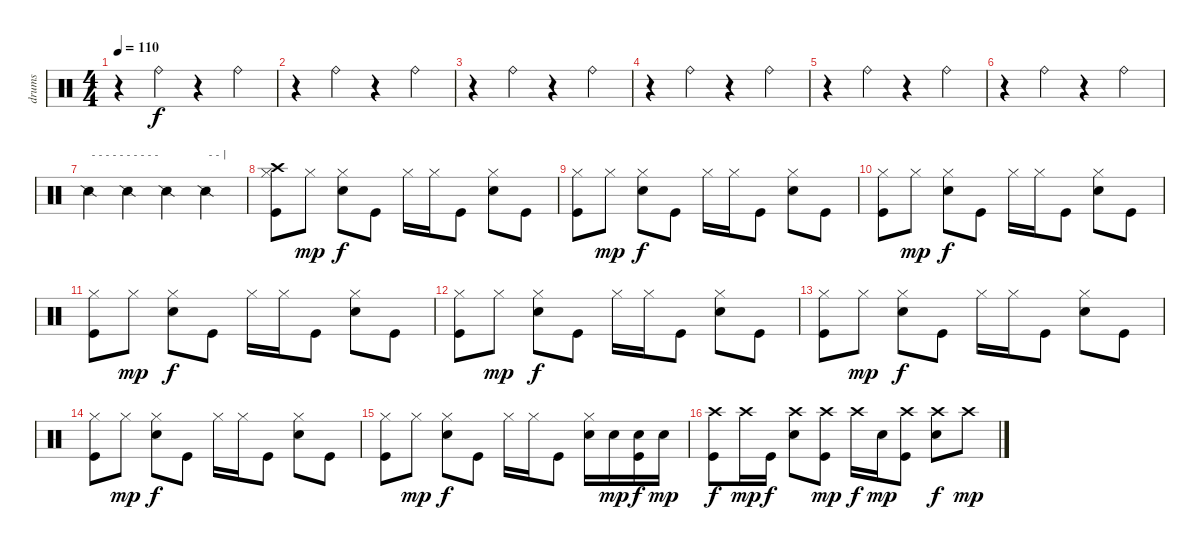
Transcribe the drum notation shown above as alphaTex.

\track ("drums" "drums") {instrument percussion}
\staff {score}
\articulation defaults
\ts (4 4)
\tempo 110
\clef neutral
\ks c
r.4{dy f} "Ride (bell)".4 r.4 "Ride (bell)".4 |
r.4 "Ride (bell)".4 r.4 "Ride (bell)".4 |
r.4 "Ride (bell)".4 r.4 "Ride (bell)".4 |
r.4 "Ride (bell)".4 r.4 "Ride (bell)".4 |
r.4 "Ride (bell)".4 r.4 "Ride (bell)".4 |
r.4 "Ride (bell)".4 r.4 "Ride (bell)".4 |
"Snare (side stick) 2".4{txt "- - - - - - - - - - "} "Snare (side stick) 2".4 "Snare (side stick) 2".4 "Snare (side stick) 2".4{txt "- - |"} |
("Hi-Hat (closed)" "Crash high (hit)" "Kick (hit)").8 "Hi-Hat (closed)".8{dy mp} ("Hi-Hat (closed)" "Electric Snare (hit)").8{dy f} "Kick (hit)".8 "Hi-Hat (closed)".16 "Hi-Hat (closed)".16 "Kick (hit)".8 ("Hi-Hat (closed)" "Electric Snare (hit)").8 "Kick (hit)".8 |
("Hi-Hat (closed)" "Kick (hit)").8 "Hi-Hat (closed)".8{dy mp} ("Hi-Hat (closed)" "Electric Snare (hit)").8{dy f} "Kick (hit)".8 "Hi-Hat (closed)".16 "Hi-Hat (closed)".16 "Kick (hit)".8 ("Hi-Hat (closed)" "Electric Snare (hit)").8 "Kick (hit)".8 |
("Hi-Hat (closed)" "Kick (hit)").8 "Hi-Hat (closed)".8{dy mp} ("Hi-Hat (closed)" "Electric Snare (hit)").8{dy f} "Kick (hit)".8 "Hi-Hat (closed)".16 "Hi-Hat (closed)".16 "Kick (hit)".8 ("Hi-Hat (closed)" "Electric Snare (hit)").8 "Kick (hit)".8 |
("Hi-Hat (closed)" "Kick (hit)").8 "Hi-Hat (closed)".8{dy mp} ("Hi-Hat (closed)" "Electric Snare (hit)").8{dy f} "Kick (hit)".8 "Hi-Hat (closed)".16 "Hi-Hat (closed)".16 "Kick (hit)".8 ("Hi-Hat (closed)" "Electric Snare (hit)").8 "Kick (hit)".8 |
("Hi-Hat (closed)" "Kick (hit)").8 "Hi-Hat (closed)".8{dy mp} ("Hi-Hat (closed)" "Electric Snare (hit)").8{dy f} "Kick (hit)".8 "Hi-Hat (closed)".16 "Hi-Hat (closed)".16 "Kick (hit)".8 ("Hi-Hat (closed)" "Electric Snare (hit)").8 "Kick (hit)".8 |
("Hi-Hat (closed)" "Kick (hit)").8 "Hi-Hat (closed)".8{dy mp} ("Hi-Hat (closed)" "Electric Snare (hit)").8{dy f} "Kick (hit)".8 "Hi-Hat (closed)".16 "Hi-Hat (closed)".16 "Kick (hit)".8 ("Hi-Hat (closed)" "Electric Snare (hit)").8 "Kick (hit)".8 |
("Hi-Hat (closed)" "Kick (hit)").8 "Hi-Hat (closed)".8{dy mp} ("Hi-Hat (closed)" "Electric Snare (hit)").8{dy f} "Kick (hit)".8 "Hi-Hat (closed)".16 "Hi-Hat (closed)".16 "Kick (hit)".8 ("Hi-Hat (closed)" "Electric Snare (hit)").8 "Kick (hit)".8 |
("Hi-Hat (closed)" "Kick (hit)").8 "Hi-Hat (closed)".8{dy mp} ("Hi-Hat (closed)" "Electric Snare (hit)").8{dy f} "Kick (hit)".8 "Hi-Hat (closed)".16 "Hi-Hat (closed)".16 "Kick (hit)".8 ("Hi-Hat (closed)" "Electric Snare (hit)").16 "Electric Snare (hit)".16{dy mp} ("Electric Snare (hit)" "Kick (hit)").16{dy f} "Electric Snare (hit)".16{dy mp} |
("Crash high (hit)" "Kick (hit)").8{dy f} "Crash high (hit)".16{dy mp} "Kick (hit)".16{dy f} ("Crash high (hit)" "Electric Snare (hit)").8 ("Crash high (hit)" "Kick (hit)").8{dy mp} "Crash high (hit)".16{dy f} "Electric Snare (hit)".16{dy mp} ("Crash high (hit)" "Kick (hit)").8 ("Crash high (hit)" "Electric Snare (hit)").8{dy f} "Crash high (hit)".8{dy mp}
